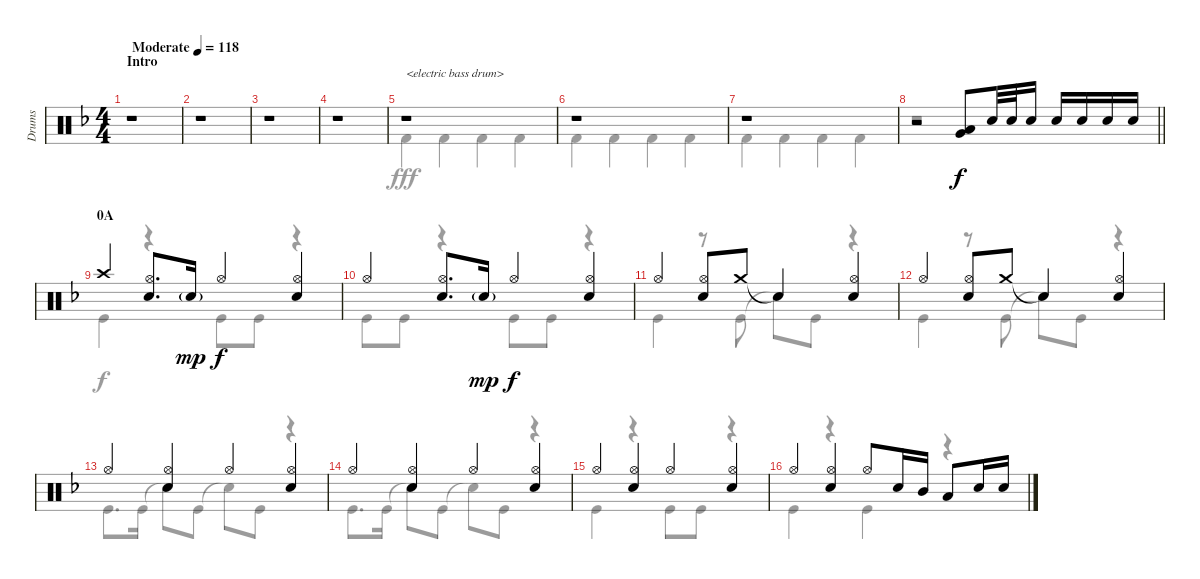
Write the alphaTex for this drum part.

\track ("Drums" "Drums") {instrument percussion}
\staff {score}
\articulation defaults
\voice
\ts (4 4)
\section ("" "Intro")
\tempo (118 "Moderate")
\clef neutral
\ks f
r.1{dy f} |
r.1 |
r.1 |
r.1 |
r.1{txt "<electric bass drum>"} |
r.1 |
r.1 |
\barLineRight lightlight
r.2 ("Low Tom (hit)" "Very Low Tom (hit)").8 "Snare (hit) 2".32 "Snare (hit) 2".32 "Snare (hit) 2".16 "Snare (hit) 2".16 "Snare (hit) 2".16 "Snare (hit) 2".16 "Snare (hit) 2".16 |
\section ("" "0A")
"Crash high (hit)".4 ("Hi-Hat (open)" "Snare (hit) 2").8{d} "Snare (hit) 2"{g}.16{dy mp} "Hi-Hat (open)".4{dy f} ("Hi-Hat (open)" "Snare (hit) 2").4 |
"Hi-Hat (open)".4 ("Hi-Hat (open)" "Snare (hit) 2").8{d} "Snare (hit) 2"{g}.16{dy mp} "Hi-Hat (open)".4{dy f} ("Hi-Hat (open)" "Snare (hit) 2").4 |
"Hi-Hat (open)".4 ("Hi-Hat (open)" "Snare (hit) 2").8 "Crash medium (hit)".8 "Snare (hit)"{t}.4 ("Hi-Hat (open)" "Snare (hit) 2").4 |
"Hi-Hat (open)".4 ("Hi-Hat (open)" "Snare (hit) 2").8 "Crash medium (hit)".8 "Snare (hit)"{t}.4 ("Hi-Hat (open)" "Snare (hit) 2").4 |
"Hi-Hat (open)".4 ("Hi-Hat (open)" "Snare (hit) 2").4 "Hi-Hat (open)".4 ("Hi-Hat (open)" "Snare (hit) 2").4 |
"Hi-Hat (open)".4 ("Hi-Hat (open)" "Snare (hit) 2").4 "Hi-Hat (open)".4 ("Hi-Hat (open)" "Snare (hit) 2").4 |
"Hi-Hat (open)".4 ("Hi-Hat (open)" "Snare (hit) 2").4 "Hi-Hat (open)".4 ("Hi-Hat (open)" "Snare (hit) 2").4 |
"Hi-Hat (open)".4 ("Hi-Hat (open)" "Snare (hit) 2").4 "Hi-Hat (open)".8 "Snare (hit) 2".16 "Mid Tom (hit)".16 "Low Tom (hit)".8 "Snare (hit) 2".16 "Snare (hit) 2".16
\voice
\clef neutral
\ottava regular
\simile none
\ks f
r.1{dy fff} |
r.1 |
r.1 |
r.1 |
"Kick (hit) 2".4 "Kick (hit) 2".4 "Kick (hit) 2".4 "Kick (hit) 2".4 |
"Kick (hit) 2".4 "Kick (hit) 2".4 "Kick (hit) 2".4 "Kick (hit) 2".4 |
"Kick (hit) 2".4 "Kick (hit) 2".4 "Kick (hit) 2".4 "Kick (hit) 2".4 |
\barLineRight lightlight
r.1 |
"Kick (hit)".4{dy f} r.4 "Kick (hit)".8 "Kick (hit)".8 r.4 |
"Kick (hit)".8 "Kick (hit)".8 r.4 "Kick (hit)".8 "Kick (hit)".8 r.4 |
"Kick (hit)".4 r.8 "Kick (hit)".8 "Snare (hit)"{t}.8 "Kick (hit)".8 r.4 |
"Kick (hit)".4 r.8 "Kick (hit)".8 "Snare (hit)"{t}.8 "Kick (hit)".8 r.4 |
"Kick (hit)".8{d} "Kick (hit)".16 "Snare (hit)"{t}.8 "Kick (hit)".8 "Snare (hit)"{t}.8 "Kick (hit)".8 r.4 |
"Kick (hit)".8{d} "Kick (hit)".16 "Snare (hit)"{t}.8 "Kick (hit)".8 "Snare (hit)"{t}.8 "Kick (hit)".8 r.4 |
"Kick (hit)".4 r.4 "Kick (hit)".8 "Kick (hit)".8 r.4 |
"Kick (hit)".4 r.4 "Kick (hit)".4 r.4
